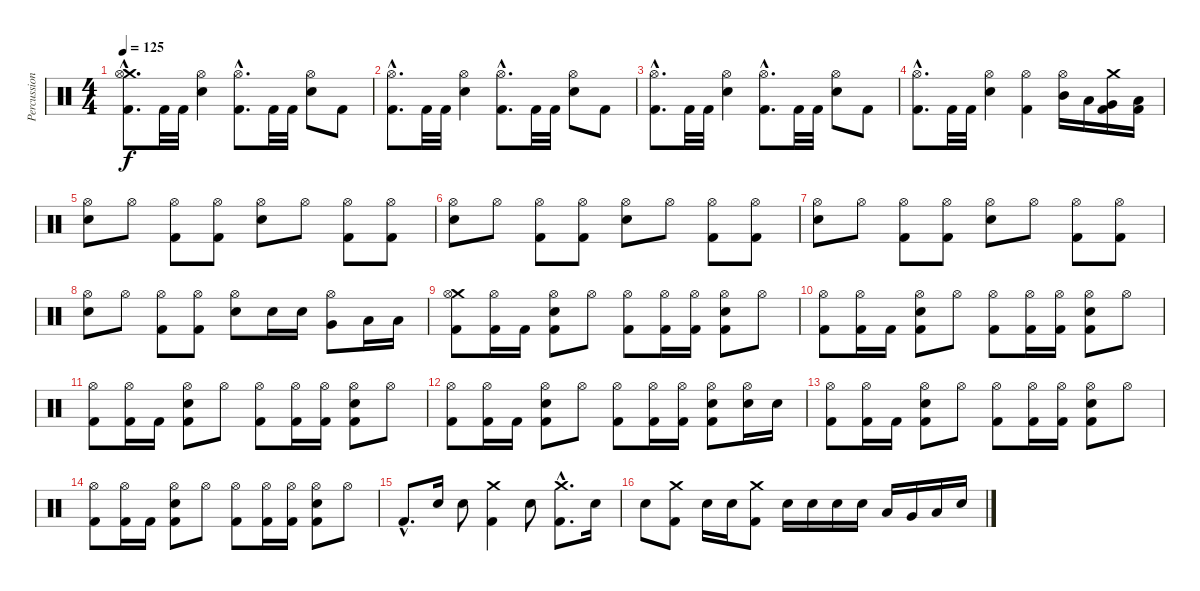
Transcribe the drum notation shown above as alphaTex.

\track ("Percussion" "Percussion") {instrument percussion}
\staff {score}
\articulation defaults
\ts (4 4)
\tempo 125
\clef neutral
\ks c
("Crash medium (hit)" "Hi-Hat (open)" "Kick (hit) 2"{hac}).8{d dy f} "Kick (hit) 2".32 "Kick (hit) 2".32 ("Hi-Hat (open)" "Electric Snare (hit)").4 ("Hi-Hat (open)"{hac} "Kick (hit) 2"{hac}).8{d} "Kick (hit) 2".32 "Kick (hit) 2".32 ("Hi-Hat (open)" "Electric Snare (hit)").8 "Kick (hit) 2".8 |
("Hi-Hat (open)"{hac} "Kick (hit) 2"{hac}).8{d} "Kick (hit) 2".32 "Kick (hit) 2".32 ("Hi-Hat (open)" "Electric Snare (hit)").4 ("Hi-Hat (open)"{hac} "Kick (hit) 2"{hac}).8{d} "Kick (hit) 2".32 "Kick (hit) 2".32 ("Hi-Hat (open)" "Electric Snare (hit)").8 "Kick (hit) 2".8 |
("Hi-Hat (open)"{hac} "Kick (hit) 2"{hac}).8{d} "Kick (hit) 2".32 "Kick (hit) 2".32 ("Hi-Hat (open)" "Electric Snare (hit)").4 ("Hi-Hat (open)"{hac} "Kick (hit) 2"{hac}).8{d} "Kick (hit) 2".32 "Kick (hit) 2".32 ("Hi-Hat (open)" "Electric Snare (hit)").8 "Kick (hit) 2".8 |
("Hi-Hat (open)"{hac} "Kick (hit) 2"{hac}).8{d} "Kick (hit) 2".32 "Kick (hit) 2".32 ("Hi-Hat (open)" "Electric Snare (hit)").4 ("Hi-Hat (open)" "Kick (hit) 2").4 ("Hi-Hat (open)" "Mid Tom (hit)").16 "Low Tom (hit)".16 ("Crash medium (hit)" "Very Low Tom (hit)" "Kick (hit) 2").16 ("Low Floor Tom (hit)" "Kick (hit) 2").16 |
("Hi-Hat (open)" "Electric Snare (hit)").8 "Hi-Hat (open)".8 ("Hi-Hat (open)" "Kick (hit) 2").8 ("Hi-Hat (open)" "Kick (hit) 2").8 ("Hi-Hat (open)" "Electric Snare (hit)").8 "Hi-Hat (open)".8 ("Hi-Hat (open)" "Kick (hit) 2").8 ("Hi-Hat (open)" "Kick (hit) 2").8 |
("Hi-Hat (open)" "Electric Snare (hit)").8 "Hi-Hat (open)".8 ("Hi-Hat (open)" "Kick (hit) 2").8 ("Hi-Hat (open)" "Kick (hit) 2").8 ("Hi-Hat (open)" "Electric Snare (hit)").8 "Hi-Hat (open)".8 ("Hi-Hat (open)" "Kick (hit) 2").8 ("Hi-Hat (open)" "Kick (hit) 2").8 |
("Hi-Hat (open)" "Electric Snare (hit)").8 "Hi-Hat (open)".8 ("Hi-Hat (open)" "Kick (hit) 2").8 ("Hi-Hat (open)" "Kick (hit) 2").8 ("Hi-Hat (open)" "Electric Snare (hit)").8 "Hi-Hat (open)".8 ("Hi-Hat (open)" "Kick (hit) 2").8 ("Hi-Hat (open)" "Kick (hit) 2").8 |
("Hi-Hat (open)" "Electric Snare (hit)").8 "Hi-Hat (open)".8 ("Hi-Hat (open)" "Kick (hit) 2").8 ("Hi-Hat (open)" "Kick (hit) 2").8 ("Hi-Hat (open)" "Electric Snare (hit)").8 "Electric Snare (hit)".16 "Electric Snare (hit)".16 ("Hi-Hat (open)" "Very Low Tom (hit)").8 "Low Tom (hit)".16 "Low Tom (hit)".16 |
("Crash medium (hit)" "Hi-Hat (open)" "Kick (hit) 2").8 ("Hi-Hat (open)" "Kick (hit) 2").16 "Kick (hit) 2".16 ("Hi-Hat (open)" "Electric Snare (hit)" "Kick (hit) 2").8 "Hi-Hat (open)".8 ("Hi-Hat (open)" "Kick (hit) 2").8 ("Hi-Hat (open)" "Kick (hit) 2").16 ("Hi-Hat (open)" "Kick (hit) 2").16 ("Hi-Hat (open)" "Electric Snare (hit)" "Kick (hit) 2").8 "Hi-Hat (open)".8 |
("Hi-Hat (open)" "Kick (hit) 2").8 ("Hi-Hat (open)" "Kick (hit) 2").16 "Kick (hit) 2".16 ("Hi-Hat (open)" "Electric Snare (hit)" "Kick (hit) 2").8 "Hi-Hat (open)".8 ("Hi-Hat (open)" "Kick (hit) 2").8 ("Hi-Hat (open)" "Kick (hit) 2").16 ("Hi-Hat (open)" "Kick (hit) 2").16 ("Hi-Hat (open)" "Electric Snare (hit)" "Kick (hit) 2").8 "Hi-Hat (open)".8 |
("Hi-Hat (open)" "Kick (hit) 2").8 ("Hi-Hat (open)" "Kick (hit) 2").16 "Kick (hit) 2".16 ("Hi-Hat (open)" "Electric Snare (hit)" "Kick (hit) 2").8 "Hi-Hat (open)".8 ("Hi-Hat (open)" "Kick (hit) 2").8 ("Hi-Hat (open)" "Kick (hit) 2").16 ("Hi-Hat (open)" "Kick (hit) 2").16 ("Hi-Hat (open)" "Electric Snare (hit)" "Kick (hit) 2").8 "Hi-Hat (open)".8 |
("Hi-Hat (open)" "Kick (hit) 2").8 ("Hi-Hat (open)" "Kick (hit) 2").16 "Kick (hit) 2".16 ("Hi-Hat (open)" "Electric Snare (hit)" "Kick (hit) 2").8 "Hi-Hat (open)".8 ("Hi-Hat (open)" "Kick (hit) 2").8 ("Hi-Hat (open)" "Kick (hit) 2").16 ("Hi-Hat (open)" "Kick (hit) 2").16 ("Hi-Hat (open)" "Electric Snare (hit)" "Kick (hit) 2").8 ("Hi-Hat (open)" "Electric Snare (hit)").16 "Electric Snare (hit)".16 |
("Hi-Hat (open)" "Kick (hit) 2").8 ("Hi-Hat (open)" "Kick (hit) 2").16 "Kick (hit) 2".16 ("Hi-Hat (open)" "Electric Snare (hit)" "Kick (hit) 2").8 "Hi-Hat (open)".8 ("Hi-Hat (open)" "Kick (hit) 2").8 ("Hi-Hat (open)" "Kick (hit) 2").16 ("Hi-Hat (open)" "Kick (hit) 2").16 ("Hi-Hat (open)" "Electric Snare (hit)" "Kick (hit) 2").8 "Hi-Hat (open)".8 |
("Hi-Hat (open)" "Kick (hit) 2").8 ("Hi-Hat (open)" "Kick (hit) 2").16 "Kick (hit) 2".16 ("Hi-Hat (open)" "Electric Snare (hit)" "Kick (hit) 2").8 "Hi-Hat (open)".8 ("Hi-Hat (open)" "Kick (hit) 2").8 ("Hi-Hat (open)" "Kick (hit) 2").16 ("Hi-Hat (open)" "Kick (hit) 2").16 ("Hi-Hat (open)" "Electric Snare (hit)" "Kick (hit) 2").8 "Hi-Hat (open)".8 |
"Kick (hit) 2"{hac}.8{d} "Electric Snare (hit)".16 "Electric Snare (hit)".8 ("Crash medium (hit)" "Kick (hit) 2").4 "Electric Snare (hit)".8 ("Crash medium (hit)" "Kick (hit) 2"{hac}).8{d} "Electric Snare (hit)".16 |
"Electric Snare (hit)".8 ("Crash medium (hit)" "Kick (hit) 2").8 "Electric Snare (hit)".16 "Electric Snare (hit)".16 ("Crash medium (hit)" "Kick (hit) 2").8 "Electric Snare (hit)".16 "Electric Snare (hit)".16 "Electric Snare (hit)".16 "Electric Snare (hit)".16 "Low Tom (hit)".16 "Very Low Tom (hit)".16 "Low Floor Tom (hit)".16 "Electric Snare (hit)".16
